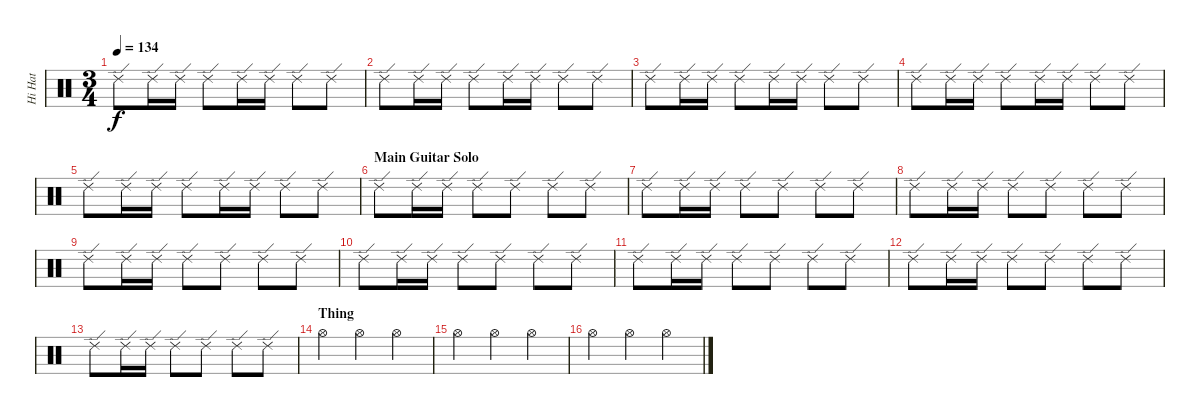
\track ("Hi Hat" "Hi Hat") {instrument percussion}
\staff {score}
\articulation defaults
\ts (3 4)
\tempo 134
\clef neutral
\ks c "Ride (edge) 2".8{dy f} "Ride (edge) 2".16 "Ride (edge) 2".16 "Ride (edge) 2".8 "Ride (edge) 2".16 "Ride (edge) 2".16 "Ride (edge) 2".8 "Ride (edge) 2".8
|
"Ride (edge) 2".8 "Ride (edge) 2".16 "Ride (edge) 2".16 "Ride (edge) 2".8 "Ride (edge) 2".16 "Ride (edge) 2".16 "Ride (edge) 2".8 "Ride (edge) 2".8 |
"Ride (edge) 2".8 "Ride (edge) 2".16 "Ride (edge) 2".16 "Ride (edge) 2".8 "Ride (edge) 2".16 "Ride (edge) 2".16 "Ride (edge) 2".8 "Ride (edge) 2".8 |
"Ride (edge) 2".8 "Ride (edge) 2".16 "Ride (edge) 2".16 "Ride (edge) 2".8 "Ride (edge) 2".16 "Ride (edge) 2".16 "Ride (edge) 2".8 "Ride (edge) 2".8 |
"Ride (edge) 2".8 "Ride (edge) 2".16 "Ride (edge) 2".16 "Ride (edge) 2".8 "Ride (edge) 2".16 "Ride (edge) 2".16 "Ride (edge) 2".8 "Ride (edge) 2".8 |
\section ("" "Main Guitar Solo")
"Ride (edge) 2".8 "Ride (edge) 2".16 "Ride (edge) 2".16 "Ride (edge) 2".8 "Ride (edge) 2".8 "Ride (edge) 2".8 "Ride (edge) 2".8 |
"Ride (edge) 2".8 "Ride (edge) 2".16 "Ride (edge) 2".16 "Ride (edge) 2".8 "Ride (edge) 2".8 "Ride (edge) 2".8 "Ride (edge) 2".8 |
"Ride (edge) 2".8 "Ride (edge) 2".16 "Ride (edge) 2".16 "Ride (edge) 2".8 "Ride (edge) 2".8 "Ride (edge) 2".8 "Ride (edge) 2".8 |
"Ride (edge) 2".8 "Ride (edge) 2".16 "Ride (edge) 2".16 "Ride (edge) 2".8 "Ride (edge) 2".8 "Ride (edge) 2".8 "Ride (edge) 2".8 |
"Ride (edge) 2".8 "Ride (edge) 2".16 "Ride (edge) 2".16 "Ride (edge) 2".8 "Ride (edge) 2".8 "Ride (edge) 2".8 "Ride (edge) 2".8 |
"Ride (edge) 2".8 "Ride (edge) 2".16 "Ride (edge) 2".16 "Ride (edge) 2".8 "Ride (edge) 2".8 "Ride (edge) 2".8 "Ride (edge) 2".8 |
"Ride (edge) 2".8 "Ride (edge) 2".16 "Ride (edge) 2".16 "Ride (edge) 2".8 "Ride (edge) 2".8 "Ride (edge) 2".8 "Ride (edge) 2".8 |
"Ride (edge) 2".8 "Ride (edge) 2".16 "Ride (edge) 2".16 "Ride (edge) 2".8 "Ride (edge) 2".8 "Ride (edge) 2".8 "Ride (edge) 2".8 |
\section ("" "Thing")
"Hi-Hat (open)".4 "Hi-Hat (open)".4 "Hi-Hat (open)".4 |
"Hi-Hat (open)".4 "Hi-Hat (open)".4 "Hi-Hat (open)".4 |
"Hi-Hat (open)".4 "Hi-Hat (open)".4 "Hi-Hat (open)".4
